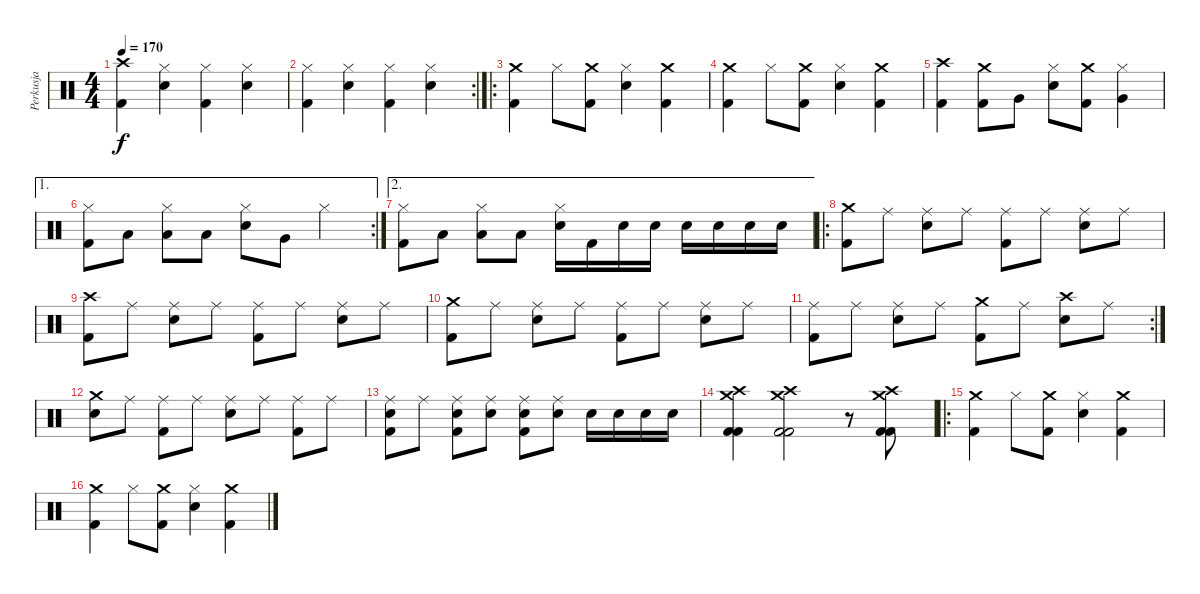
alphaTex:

\track ("Perkusja" "Perkusja") {instrument percussion}
\staff {score}
\articulation defaults
\ts (4 4)
\tempo 170
\clef neutral
\ks c
("Crash high (hit)" "Kick (hit) 2").4{dy f} ("Hi-Hat (closed)" "Snare (hit) 2").4 ("Hi-Hat (closed)" "Kick (hit) 2").4 ("Hi-Hat (closed)" "Snare (hit) 2").4 |
\rc 2
("Hi-Hat (closed)" "Kick (hit) 2").4 ("Hi-Hat (closed)" "Snare (hit) 2").4 ("Hi-Hat (closed)" "Kick (hit) 2").4 ("Hi-Hat (closed)" "Snare (hit) 2").4 |
\ro
("Crash medium (hit)" "Kick (hit) 2").4 "Hi-Hat (closed)".8 ("Crash medium (hit)" "Kick (hit) 2").8 ("Hi-Hat (closed)" "Snare (hit) 2").4 ("Crash medium (hit)" "Kick (hit) 2").4 |
("Crash medium (hit)" "Kick (hit) 2").4 "Hi-Hat (closed)".8 ("Crash medium (hit)" "Kick (hit) 2").8 ("Hi-Hat (closed)" "Snare (hit) 2").4 ("Crash medium (hit)" "Kick (hit) 2").4 |
("Crash high (hit)" "Kick (hit) 2").4 ("Crash medium (hit)" "Kick (hit) 2").8 "Very Low Tom (hit)".8 ("Hi-Hat (closed)" "Snare (hit) 2").8 ("Crash medium (hit)" "Kick (hit) 2").8 ("Hi-Hat (closed)" "Very Low Tom (hit)").4 |
\ae 1
\rc 2
("Hi-Hat (closed)" "Kick (hit) 2").8 "Low Tom (hit)".8 ("Hi-Hat (closed)" "Low Tom (hit)").8 "Low Tom (hit)".8 ("Hi-Hat (closed)" "Snare (hit) 2").8 "Very Low Tom (hit)".8 "Hi-Hat (closed)".4 |
\ae 2
("Hi-Hat (closed)" "Kick (hit) 2").8 "Low Tom (hit)".8 ("Hi-Hat (closed)" "Low Tom (hit)").8 "Low Tom (hit)".8 ("Hi-Hat (closed)" "Snare (hit) 2").16 "Kick (hit) 2".16 "Snare (hit) 2".16 "Snare (hit) 2".16 "Snare (hit) 2".16 "Snare (hit) 2".16 "Snare (hit) 2".16 "Snare (hit) 2".16 |
\ro
("Crash medium (hit)" "Kick (hit) 2").8 "Ride (middle)".8 ("Ride (middle)" "Snare (hit) 2").8 "Ride (middle)".8 ("Ride (middle)" "Kick (hit) 2").8 "Ride (middle)".8 ("Ride (middle)" "Snare (hit) 2").8 "Ride (middle)".8 |
("Crash high (hit)" "Kick (hit) 2").8 "Ride (middle)".8 ("Ride (middle)" "Snare (hit) 2").8 "Ride (middle)".8 ("Ride (middle)" "Kick (hit) 2").8 "Ride (middle)".8 ("Ride (middle)" "Snare (hit) 2").8 "Ride (middle)".8 |
("Crash medium (hit)" "Kick (hit) 2").8 "Ride (middle)".8 ("Ride (middle)" "Snare (hit) 2").8 "Ride (middle)".8 ("Ride (middle)" "Kick (hit) 2").8 "Ride (middle)".8 ("Ride (middle)" "Snare (hit) 2").8 "Ride (middle)".8 |
\rc 2
("Ride (middle)" "Kick (hit) 2").8 "Ride (middle)".8 ("Ride (middle)" "Snare (hit) 2").8 "Ride (middle)".8 ("Crash medium (hit)" "Kick (hit) 2").8 "Ride (middle)".8 ("Crash high (hit)" "Snare (hit) 2").8 "Ride (middle)".8 |
("Crash medium (hit)" "Snare (hit) 2").8 "Ride (middle)".8 ("Ride (middle)" "Kick (hit) 2").8 "Ride (middle)".8 ("Ride (middle)" "Snare (hit) 2").8 "Ride (middle)".8 ("Ride (middle)" "Kick (hit) 2").8 "Ride (middle)".8 |
("Ride (middle)" "Snare (hit) 2" "Kick (hit) 2").8 "Ride (middle)".8 ("Ride (middle)" "Snare (hit) 2" "Kick (hit) 2").8 ("Ride (middle)" "Snare (hit) 2").8 ("Ride (middle)" "Snare (hit) 2" "Kick (hit) 2").8 ("Ride (middle)" "Snare (hit) 2").8 "Snare (hit) 2".16 "Snare (hit) 2".16 "Snare (hit) 2".16 "Snare (hit) 2".16 |
("Crash medium (hit)" "Crash high (hit)" "Kick (hit) 2" "Kick (hit) 2").4 ("Crash medium (hit)" "Crash high (hit)" "Kick (hit) 2" "Kick (hit) 2").2 r.8 ("Crash medium (hit)" "Crash high (hit)" "Kick (hit) 2" "Kick (hit) 2").8 |
\ro
("Crash medium (hit)" "Kick (hit) 2").4 "Hi-Hat (closed)".8 ("Crash medium (hit)" "Kick (hit) 2").8 ("Hi-Hat (closed)" "Snare (hit) 2").4 ("Crash medium (hit)" "Kick (hit) 2").4 |
("Crash medium (hit)" "Kick (hit) 2").4 "Hi-Hat (closed)".8 ("Crash medium (hit)" "Kick (hit) 2").8 ("Hi-Hat (closed)" "Snare (hit) 2").4 ("Crash medium (hit)" "Kick (hit) 2").4
